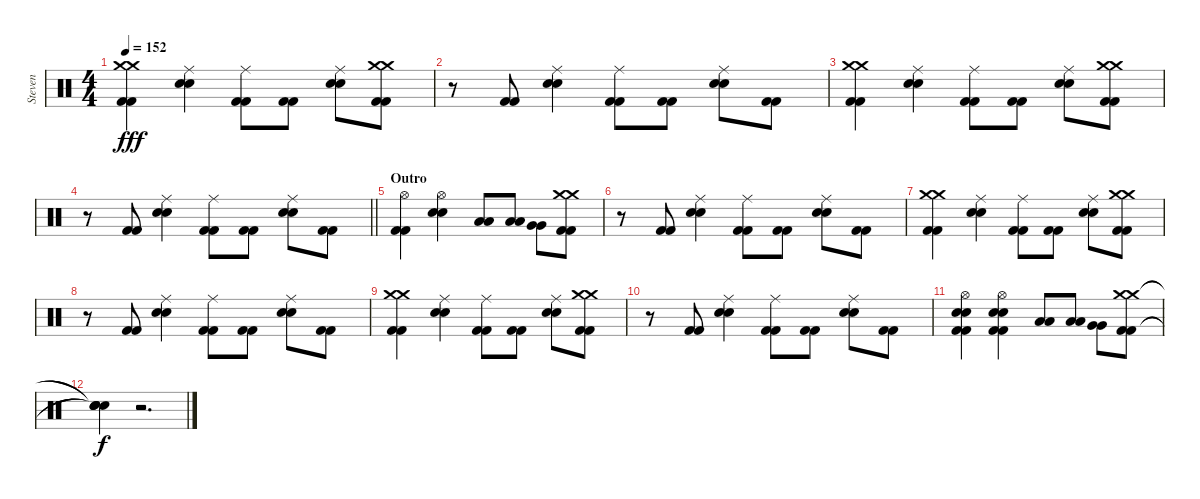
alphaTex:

\track ("Steven" "Steven") {instrument percussion}
\staff {score}
\articulation defaults
\ts (4 4)
\tempo 152
\clef neutral
\ks c
("Crash medium (hit)" "Crash medium (hit)" "Kick (hit) 2" "Kick (hit) 2").4{dy fff} ("Ride (middle)" "Electric Snare (hit)" "Electric Snare (hit)").4 ("Ride (middle)" "Kick (hit) 2" "Kick (hit) 2").8 ("Kick (hit) 2" "Kick (hit) 2").8 ("Ride (middle)" "Electric Snare (hit)" "Electric Snare (hit)").8 ("Crash medium (hit)" "Crash medium (hit)" "Kick (hit) 2" "Kick (hit) 2").8 |
r.8 ("Kick (hit) 2" "Kick (hit) 2").8 ("Ride (middle)" "Electric Snare (hit)" "Electric Snare (hit)").4 ("Ride (middle)" "Kick (hit) 2" "Kick (hit) 2").8 ("Kick (hit) 2" "Kick (hit) 2").8 ("Ride (middle)" "Electric Snare (hit)" "Electric Snare (hit)").8 ("Kick (hit) 2" "Kick (hit) 2").8 |
("Crash medium (hit)" "Crash medium (hit)" "Kick (hit) 2" "Kick (hit) 2").4 ("Ride (middle)" "Electric Snare (hit)" "Electric Snare (hit)").4 ("Ride (middle)" "Kick (hit) 2" "Kick (hit) 2").8 ("Kick (hit) 2" "Kick (hit) 2").8 ("Ride (middle)" "Electric Snare (hit)" "Electric Snare (hit)").8 ("Crash medium (hit)" "Crash medium (hit)" "Kick (hit) 2" "Kick (hit) 2").8 |
\barLineRight lightlight
r.8 ("Kick (hit) 2" "Kick (hit) 2").8 ("Ride (middle)" "Electric Snare (hit)" "Electric Snare (hit)").4 ("Ride (middle)" "Kick (hit) 2" "Kick (hit) 2").8 ("Kick (hit) 2" "Kick (hit) 2").8 ("Ride (middle)" "Electric Snare (hit)" "Electric Snare (hit)").8 ("Kick (hit) 2" "Kick (hit) 2").8 |
\section ("" "Outro")
("Hi-Hat (open)" "Kick (hit) 2" "Kick (hit) 2").4 ("Hi-Hat (open)" "Electric Snare (hit)" "Electric Snare (hit)").4 ("Low Tom (hit)" "Low Tom (hit)").8 ("Low Tom (hit)" "Low Tom (hit)").8 ("Very Low Tom (hit)" "Very Low Tom (hit)").8 ("Crash medium (hit)" "Crash medium (hit)" "Kick (hit) 2" "Kick (hit) 2").8 |
r.8 ("Kick (hit) 2" "Kick (hit) 2").8 ("Ride (middle)" "Electric Snare (hit)" "Electric Snare (hit)").4 ("Ride (middle)" "Kick (hit) 2" "Kick (hit) 2").8 ("Kick (hit) 2" "Kick (hit) 2").8 ("Ride (middle)" "Electric Snare (hit)" "Electric Snare (hit)").8 ("Kick (hit) 2" "Kick (hit) 2").8 |
("Crash medium (hit)" "Crash medium (hit)" "Kick (hit) 2" "Kick (hit) 2").4 ("Ride (middle)" "Electric Snare (hit)" "Electric Snare (hit)").4 ("Ride (middle)" "Kick (hit) 2" "Kick (hit) 2").8 ("Kick (hit) 2" "Kick (hit) 2").8 ("Ride (middle)" "Electric Snare (hit)" "Electric Snare (hit)").8 ("Crash medium (hit)" "Crash medium (hit)" "Kick (hit) 2" "Kick (hit) 2").8 |
r.8 ("Kick (hit) 2" "Kick (hit) 2").8 ("Ride (middle)" "Electric Snare (hit)" "Electric Snare (hit)").4 ("Ride (middle)" "Kick (hit) 2" "Kick (hit) 2").8 ("Kick (hit) 2" "Kick (hit) 2").8 ("Ride (middle)" "Electric Snare (hit)" "Electric Snare (hit)").8 ("Kick (hit) 2" "Kick (hit) 2").8 |
("Crash medium (hit)" "Crash medium (hit)" "Kick (hit) 2" "Kick (hit) 2").4 ("Ride (middle)" "Electric Snare (hit)" "Electric Snare (hit)").4 ("Ride (middle)" "Kick (hit) 2" "Kick (hit) 2").8 ("Kick (hit) 2" "Kick (hit) 2").8 ("Ride (middle)" "Electric Snare (hit)" "Electric Snare (hit)").8 ("Crash medium (hit)" "Crash medium (hit)" "Kick (hit) 2" "Kick (hit) 2").8 |
r.8 ("Kick (hit) 2" "Kick (hit) 2").8 ("Ride (middle)" "Electric Snare (hit)" "Electric Snare (hit)").4 ("Ride (middle)" "Kick (hit) 2" "Kick (hit) 2").8 ("Kick (hit) 2" "Kick (hit) 2").8 ("Ride (middle)" "Electric Snare (hit)" "Electric Snare (hit)").8 ("Kick (hit) 2" "Kick (hit) 2").8 |
("Hi-Hat (open)" "Electric Snare (hit)" "Electric Snare (hit)" "Kick (hit) 2" "Kick (hit) 2").4 ("Hi-Hat (open)" "Electric Snare (hit)" "Electric Snare (hit)" "Kick (hit) 2" "Kick (hit) 2").4 ("Low Tom (hit)" "Low Tom (hit)").8 ("Low Tom (hit)" "Low Tom (hit)").8 ("Very Low Tom (hit)" "Very Low Tom (hit)").8 ("Crash medium (hit)" "Crash medium (hit)" "Kick (hit) 2" "Kick (hit) 2").8 |
("Snare (hit)"{t} "Snare (hit)"{t} "Snare (hit)"{t} "Snare (hit)"{t}).4{dy f} r.2{d}
